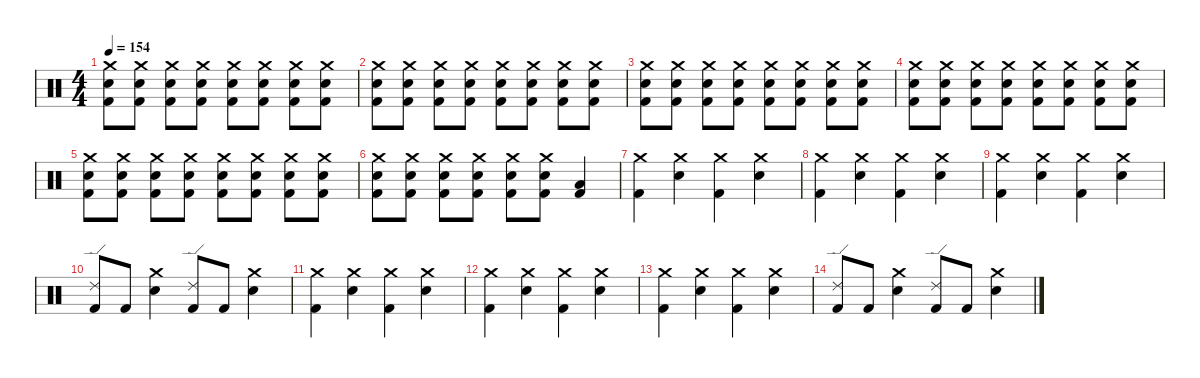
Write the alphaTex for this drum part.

\defaultSystemsLayout 4
\hideDynamics
\bracketExtendMode nobrackets
\singleTrackTrackNamePolicy hidden
\multiTrackTrackNamePolicy hidden
\firstSystemTrackNameMode fullname
\firstSystemTrackNameOrientation horizontal
\otherSystemsTrackNameOrientation horizontal
\track ("Percussie" "drm.") {instrument percussion}
\staff {score}
\articulation defaults
\ts (4 4)
\tempo 154
\clef neutral
\ks c
("Crash medium (hit)" "Snare (hit) 2" "Kick (hit) 2").8{dy f beam Down} ("Crash medium (hit)" "Snare (hit) 2" "Kick (hit) 2").8{beam Down} ("Crash medium (hit)" "Snare (hit) 2" "Kick (hit) 2").8{beam Down} ("Crash medium (hit)" "Snare (hit) 2" "Kick (hit) 2").8{beam Down} ("Crash medium (hit)" "Snare (hit) 2" "Kick (hit) 2").8{beam Down} ("Crash medium (hit)" "Snare (hit) 2" "Kick (hit) 2").8{beam Down} ("Crash medium (hit)" "Snare (hit) 2" "Kick (hit) 2").8{beam Down} ("Crash medium (hit)" "Snare (hit) 2" "Kick (hit) 2").8{beam Down} |
("Crash medium (hit)" "Snare (hit) 2" "Kick (hit) 2").8{beam Down} ("Crash medium (hit)" "Snare (hit) 2" "Kick (hit) 2").8{beam Down} ("Crash medium (hit)" "Snare (hit) 2" "Kick (hit) 2").8{beam Down} ("Crash medium (hit)" "Snare (hit) 2" "Kick (hit) 2").8{beam Down} ("Crash medium (hit)" "Snare (hit) 2" "Kick (hit) 2").8{beam Down} ("Crash medium (hit)" "Snare (hit) 2" "Kick (hit) 2").8{beam Down} ("Crash medium (hit)" "Snare (hit) 2" "Kick (hit) 2").8{beam Down} ("Crash medium (hit)" "Snare (hit) 2" "Kick (hit) 2").8{beam Down} |
("Crash medium (hit)" "Snare (hit) 2" "Kick (hit) 2").8{beam Down} ("Crash medium (hit)" "Snare (hit) 2" "Kick (hit) 2").8{beam Down} ("Crash medium (hit)" "Snare (hit) 2" "Kick (hit) 2").8{beam Down} ("Crash medium (hit)" "Snare (hit) 2" "Kick (hit) 2").8{beam Down} ("Crash medium (hit)" "Snare (hit) 2" "Kick (hit) 2").8{beam Down} ("Crash medium (hit)" "Snare (hit) 2" "Kick (hit) 2").8{beam Down} ("Crash medium (hit)" "Snare (hit) 2" "Kick (hit) 2").8{beam Down} ("Crash medium (hit)" "Snare (hit) 2" "Kick (hit) 2").8{beam Down} |
("Crash medium (hit)" "Snare (hit) 2" "Kick (hit) 2").8{beam Down} ("Crash medium (hit)" "Snare (hit) 2" "Kick (hit) 2").8{beam Down} ("Crash medium (hit)" "Snare (hit) 2" "Kick (hit) 2").8{beam Down} ("Crash medium (hit)" "Snare (hit) 2" "Kick (hit) 2").8{beam Down} ("Crash medium (hit)" "Snare (hit) 2" "Kick (hit) 2").8{beam Down} ("Crash medium (hit)" "Snare (hit) 2" "Kick (hit) 2").8{beam Down} ("Crash medium (hit)" "Snare (hit) 2" "Kick (hit) 2").8{beam Down} ("Crash medium (hit)" "Snare (hit) 2" "Kick (hit) 2").8{beam Down} |
("Crash medium (hit)" "Snare (hit) 2" "Kick (hit) 2").8{beam Down} ("Crash medium (hit)" "Snare (hit) 2" "Kick (hit) 2").8{beam Down} ("Crash medium (hit)" "Snare (hit) 2" "Kick (hit) 2").8{beam Down} ("Crash medium (hit)" "Snare (hit) 2" "Kick (hit) 2").8{beam Down} ("Crash medium (hit)" "Snare (hit) 2" "Kick (hit) 2").8{beam Down} ("Crash medium (hit)" "Snare (hit) 2" "Kick (hit) 2").8{beam Down} ("Crash medium (hit)" "Snare (hit) 2" "Kick (hit) 2").8{beam Down} ("Crash medium (hit)" "Snare (hit) 2" "Kick (hit) 2").8{beam Down} |
("Crash medium (hit)" "Snare (hit) 2" "Kick (hit) 2").8{beam Down} ("Crash medium (hit)" "Snare (hit) 2" "Kick (hit) 2").8{beam Down} ("Crash medium (hit)" "Snare (hit) 2" "Kick (hit) 2").8{beam Down} ("Crash medium (hit)" "Snare (hit) 2" "Kick (hit) 2").8{beam Down} ("Crash medium (hit)" "Snare (hit) 2" "Kick (hit) 2").8{beam Down} ("Crash medium (hit)" "Snare (hit) 2" "Kick (hit) 2").8{beam Down} ("Low Tom (hit)" "Kick (hit) 2").4{beam Up} |
("Crash medium (hit)" "Kick (hit) 2").4{beam Down} ("Crash medium (hit)" "Snare (hit) 2").4{beam Down} ("Crash medium (hit)" "Kick (hit) 2").4{beam Down} ("Crash medium (hit)" "Snare (hit) 2").4{beam Down} |
("Crash medium (hit)" "Kick (hit) 2").4{beam Down} ("Crash medium (hit)" "Snare (hit) 2").4{beam Down} ("Crash medium (hit)" "Kick (hit) 2").4{beam Down} ("Crash medium (hit)" "Snare (hit) 2").4{beam Down} |
("Crash medium (hit)" "Kick (hit) 2").4{beam Down} ("Crash medium (hit)" "Snare (hit) 2").4{beam Down} ("Crash medium (hit)" "Kick (hit) 2").4{beam Down} ("Crash medium (hit)" "Snare (hit) 2").4{beam Down} |
("Ride (edge) 2" "Kick (hit) 2").8{beam Up} "Kick (hit) 2".8{beam Up} ("Crash medium (hit)" "Snare (hit) 2").4{beam Down} ("Ride (edge) 2" "Kick (hit) 2").8{beam Up} "Kick (hit) 2".8{beam Up} ("Crash medium (hit)" "Snare (hit) 2").4{beam Down} |
("Crash medium (hit)" "Kick (hit) 2").4{beam Down} ("Crash medium (hit)" "Snare (hit) 2").4{beam Down} ("Crash medium (hit)" "Kick (hit) 2").4{beam Down} ("Crash medium (hit)" "Snare (hit) 2").4{beam Down} |
("Crash medium (hit)" "Kick (hit) 2").4{beam Down} ("Crash medium (hit)" "Snare (hit) 2").4{beam Down} ("Crash medium (hit)" "Kick (hit) 2").4{beam Down} ("Crash medium (hit)" "Snare (hit) 2").4{beam Down} |
("Crash medium (hit)" "Kick (hit) 2").4{beam Down} ("Crash medium (hit)" "Snare (hit) 2").4{beam Down} ("Crash medium (hit)" "Kick (hit) 2").4{beam Down} ("Crash medium (hit)" "Snare (hit) 2").4{beam Down} |
("Ride (edge) 2" "Kick (hit) 2").8{beam Up} "Kick (hit) 2".8{beam Up} ("Crash medium (hit)" "Snare (hit) 2").4{beam Down} ("Ride (edge) 2" "Kick (hit) 2").8{beam Up} "Kick (hit) 2".8{beam Up} ("Crash medium (hit)" "Snare (hit) 2").4{beam Down}
